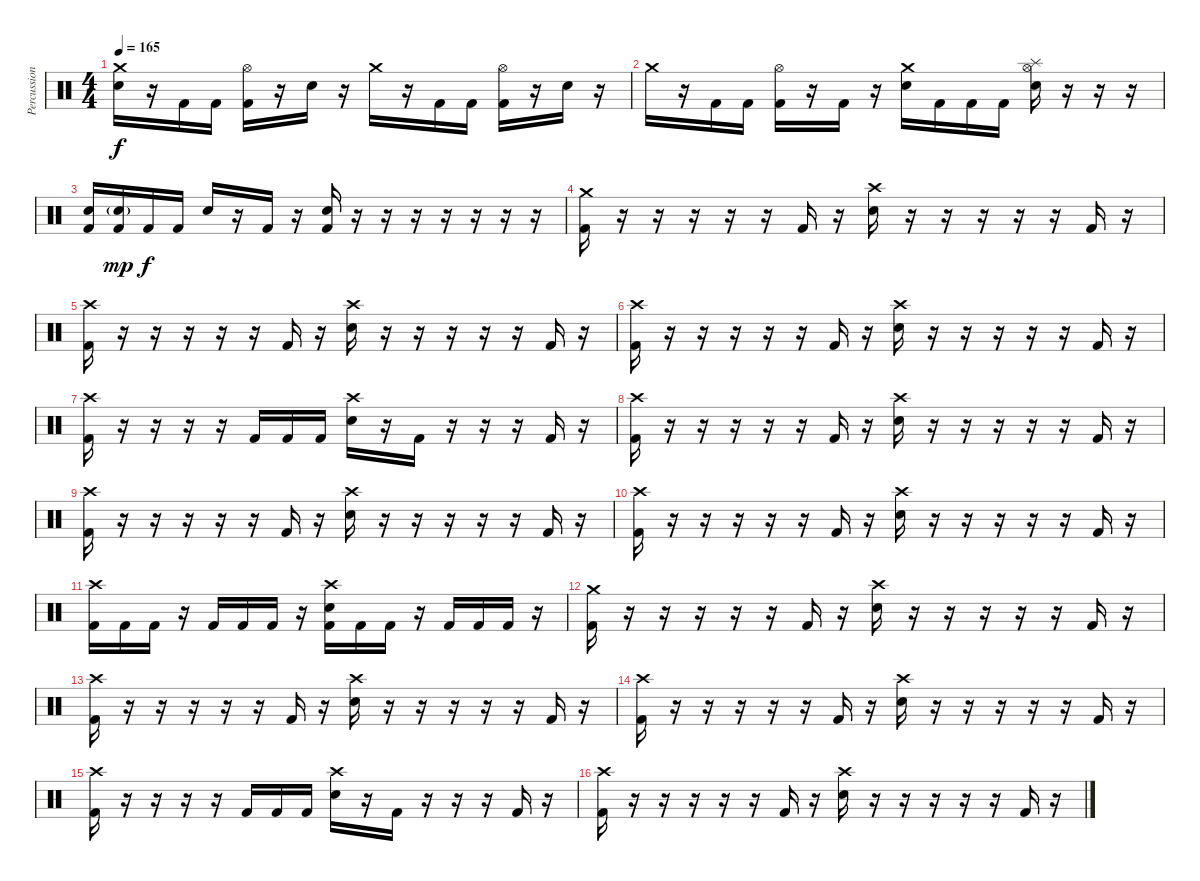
\track ("Percussion" "Percussion") {instrument percussion}
\staff {score}
\articulation defaults
\ts (4 4)
\tempo 165
\clef neutral
\ks c
("Crash medium (hit)" "Electric Snare (hit)").16{dy f} r.16 "Kick (hit) 2".16 "Kick (hit) 2".16 ("Hi-Hat (open)" "Kick (hit) 2").16 r.16 "Electric Snare (hit)".16 r.16 "Crash medium (hit)".16 r.16 "Kick (hit) 2".16 "Kick (hit) 2".16 ("Hi-Hat (open)" "Kick (hit) 2").16 r.16 "Electric Snare (hit)".16 r.16 |
"Crash medium (hit)".16 r.16 "Kick (hit) 2".16 "Kick (hit) 2".16 ("Hi-Hat (open)" "Kick (hit) 2").16 r.16 "Kick (hit) 2".16 r.16 ("Crash medium (hit)" "Electric Snare (hit)").16 "Kick (hit) 2".16 "Kick (hit) 2".16 "Kick (hit) 2".16 ("Hi-Hat (open)" "Splash (hit)" "Electric Snare (hit)").16 r.16 r.16 r.16 |
("Electric Snare (hit)" "Kick (hit) 2").16 ("Electric Snare (hit)"{g} "Kick (hit) 2").16{dy mp} "Kick (hit) 2".16{dy f} "Kick (hit) 2".16 "Electric Snare (hit)".16 r.16 "Kick (hit) 2".16 r.16 ("Electric Snare (hit)" "Kick (hit) 2").16 r.16 r.16 r.16 r.16 r.16 r.16 r.16 |
("Crash medium (hit)" "Kick (hit) 2").16 r.16 r.16 r.16 r.16 r.16 "Kick (hit) 2".16 r.16 ("Crash high (hit)" "Electric Snare (hit)").16 r.16 r.16 r.16 r.16 r.16 "Kick (hit) 2".16 r.16 |
("Crash high (hit)" "Kick (hit) 2").16 r.16 r.16 r.16 r.16 r.16 "Kick (hit) 2".16 r.16 ("Crash high (hit)" "Electric Snare (hit)").16 r.16 r.16 r.16 r.16 r.16 "Kick (hit) 2".16 r.16 |
("Crash high (hit)" "Kick (hit) 2").16 r.16 r.16 r.16 r.16 r.16 "Kick (hit) 2".16 r.16 ("Crash high (hit)" "Electric Snare (hit)").16 r.16 r.16 r.16 r.16 r.16 "Kick (hit) 2".16 r.16 |
("Crash high (hit)" "Kick (hit) 2").16 r.16 r.16 r.16 r.16 "Kick (hit) 2".16 "Kick (hit) 2".16 "Kick (hit) 2".16 ("Crash high (hit)" "Electric Snare (hit)").16 r.16 "Kick (hit) 2".16 r.16 r.16 r.16 "Kick (hit) 2".16 r.16 |
("Crash high (hit)" "Kick (hit) 2").16 r.16 r.16 r.16 r.16 r.16 "Kick (hit) 2".16 r.16 ("Crash high (hit)" "Electric Snare (hit)").16 r.16 r.16 r.16 r.16 r.16 "Kick (hit) 2".16 r.16 |
("Crash high (hit)" "Kick (hit) 2").16 r.16 r.16 r.16 r.16 r.16 "Kick (hit) 2".16 r.16 ("Crash high (hit)" "Electric Snare (hit)").16 r.16 r.16 r.16 r.16 r.16 "Kick (hit) 2".16 r.16 |
("Crash high (hit)" "Kick (hit) 2").16 r.16 r.16 r.16 r.16 r.16 "Kick (hit) 2".16 r.16 ("Crash high (hit)" "Electric Snare (hit)").16 r.16 r.16 r.16 r.16 r.16 "Kick (hit) 2".16 r.16 |
("Crash high (hit)" "Kick (hit) 2").16 "Kick (hit) 2".16 "Kick (hit) 2".16 r.16 "Kick (hit) 2".16 "Kick (hit) 2".16 "Kick (hit) 2".16 r.16 ("Crash high (hit)" "Electric Snare (hit)" "Kick (hit) 2").16 "Kick (hit) 2".16 "Kick (hit) 2".16 r.16 "Kick (hit) 2".16 "Kick (hit) 2".16 "Kick (hit) 2".16 r.16 |
("Crash medium (hit)" "Kick (hit) 2").16 r.16 r.16 r.16 r.16 r.16 "Kick (hit) 2".16 r.16 ("Crash high (hit)" "Electric Snare (hit)").16 r.16 r.16 r.16 r.16 r.16 "Kick (hit) 2".16 r.16 |
("Crash high (hit)" "Kick (hit) 2").16 r.16 r.16 r.16 r.16 r.16 "Kick (hit) 2".16 r.16 ("Crash high (hit)" "Electric Snare (hit)").16 r.16 r.16 r.16 r.16 r.16 "Kick (hit) 2".16 r.16 |
("Crash high (hit)" "Kick (hit) 2").16 r.16 r.16 r.16 r.16 r.16 "Kick (hit) 2".16 r.16 ("Crash high (hit)" "Electric Snare (hit)").16 r.16 r.16 r.16 r.16 r.16 "Kick (hit) 2".16 r.16 |
("Crash high (hit)" "Kick (hit) 2").16 r.16 r.16 r.16 r.16 "Kick (hit) 2".16 "Kick (hit) 2".16 "Kick (hit) 2".16 ("Crash high (hit)" "Electric Snare (hit)").16 r.16 "Kick (hit) 2".16 r.16 r.16 r.16 "Kick (hit) 2".16 r.16 |
("Crash high (hit)" "Kick (hit) 2").16 r.16 r.16 r.16 r.16 r.16 "Kick (hit) 2".16 r.16 ("Crash high (hit)" "Electric Snare (hit)").16 r.16 r.16 r.16 r.16 r.16 "Kick (hit) 2".16 r.16
